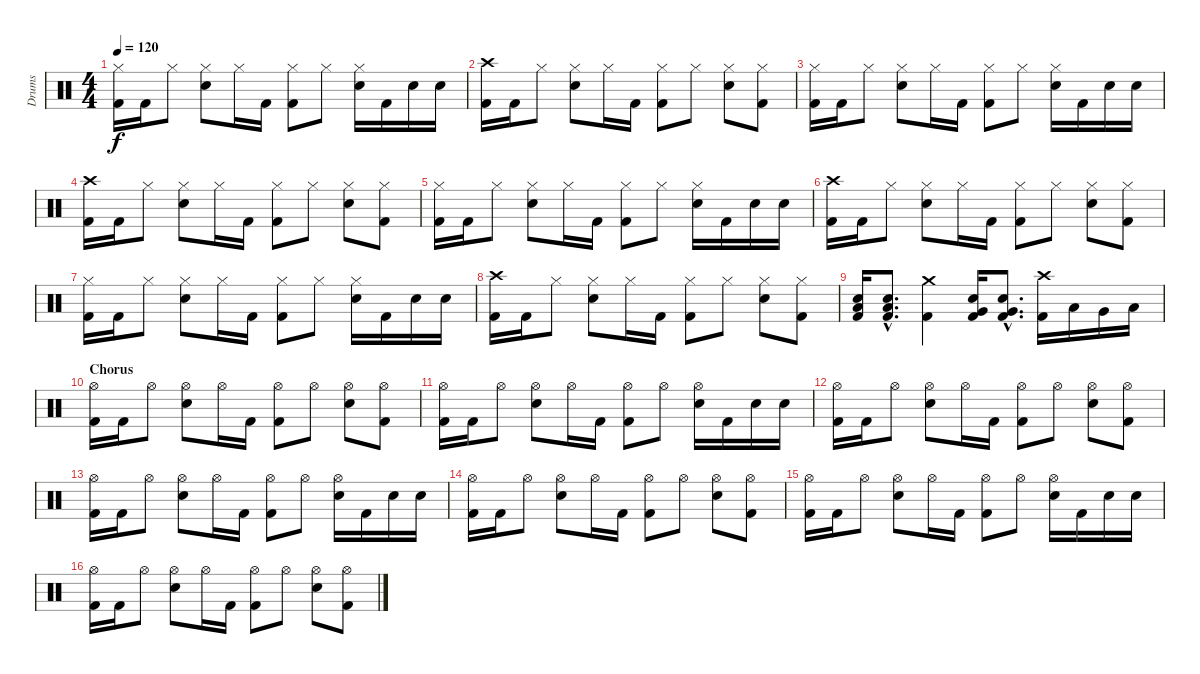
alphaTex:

\track ("Drums" "Drums") {instrument percussion}
\staff {score}
\articulation defaults
\ts (4 4)
\tempo 120
\clef neutral
\ks c
("Hi-Hat (closed)" "Kick (hit) 2").16{dy f} "Kick (hit) 2".16 "Hi-Hat (closed)".8 ("Hi-Hat (closed)" "Electric Snare (hit)").8 "Hi-Hat (closed)".16 "Kick (hit) 2".16 ("Hi-Hat (closed)" "Kick (hit) 2").8 "Hi-Hat (closed)".8 ("Hi-Hat (closed)" "Electric Snare (hit)").16 "Kick (hit) 2".16 "Electric Snare (hit)".16 "Electric Snare (hit)".16 |
("Crash high (hit)" "Kick (hit) 2").16 "Kick (hit) 2".16 "Hi-Hat (closed)".8 ("Hi-Hat (closed)" "Electric Snare (hit)").8 "Hi-Hat (closed)".16 "Kick (hit) 2".16 ("Hi-Hat (closed)" "Kick (hit) 2").8 "Hi-Hat (closed)".8 ("Hi-Hat (closed)" "Electric Snare (hit)").8 ("Hi-Hat (closed)" "Kick (hit) 2").8 |
("Hi-Hat (closed)" "Kick (hit) 2").16 "Kick (hit) 2".16 "Hi-Hat (closed)".8 ("Hi-Hat (closed)" "Electric Snare (hit)").8 "Hi-Hat (closed)".16 "Kick (hit) 2".16 ("Hi-Hat (closed)" "Kick (hit) 2").8 "Hi-Hat (closed)".8 ("Hi-Hat (closed)" "Electric Snare (hit)").16 "Kick (hit) 2".16 "Electric Snare (hit)".16 "Electric Snare (hit)".16 |
("Crash high (hit)" "Kick (hit) 2").16 "Kick (hit) 2".16 "Hi-Hat (closed)".8 ("Hi-Hat (closed)" "Electric Snare (hit)").8 "Hi-Hat (closed)".16 "Kick (hit) 2".16 ("Hi-Hat (closed)" "Kick (hit) 2").8 "Hi-Hat (closed)".8 ("Hi-Hat (closed)" "Electric Snare (hit)").8 ("Hi-Hat (closed)" "Kick (hit) 2").8 |
("Hi-Hat (closed)" "Kick (hit) 2").16 "Kick (hit) 2".16 "Hi-Hat (closed)".8 ("Hi-Hat (closed)" "Electric Snare (hit)").8 "Hi-Hat (closed)".16 "Kick (hit) 2".16 ("Hi-Hat (closed)" "Kick (hit) 2").8 "Hi-Hat (closed)".8 ("Hi-Hat (closed)" "Electric Snare (hit)").16 "Kick (hit) 2".16 "Electric Snare (hit)".16 "Electric Snare (hit)".16 |
("Crash high (hit)" "Kick (hit) 2").16 "Kick (hit) 2".16 "Hi-Hat (closed)".8 ("Hi-Hat (closed)" "Electric Snare (hit)").8 "Hi-Hat (closed)".16 "Kick (hit) 2".16 ("Hi-Hat (closed)" "Kick (hit) 2").8 "Hi-Hat (closed)".8 ("Hi-Hat (closed)" "Electric Snare (hit)").8 ("Hi-Hat (closed)" "Kick (hit) 2").8 |
("Hi-Hat (closed)" "Kick (hit) 2").16 "Kick (hit) 2".16 "Hi-Hat (closed)".8 ("Hi-Hat (closed)" "Electric Snare (hit)").8 "Hi-Hat (closed)".16 "Kick (hit) 2".16 ("Hi-Hat (closed)" "Kick (hit) 2").8 "Hi-Hat (closed)".8 ("Hi-Hat (closed)" "Electric Snare (hit)").16 "Kick (hit) 2".16 "Electric Snare (hit)".16 "Electric Snare (hit)".16 |
("Crash high (hit)" "Kick (hit) 2").16 "Kick (hit) 2".16 "Hi-Hat (closed)".8 ("Hi-Hat (closed)" "Electric Snare (hit)").8 "Hi-Hat (closed)".16 "Kick (hit) 2".16 ("Hi-Hat (closed)" "Kick (hit) 2").8 "Hi-Hat (closed)".8 ("Hi-Hat (closed)" "Electric Snare (hit)").8 ("Hi-Hat (closed)" "Kick (hit) 2").8 |
("Electric Snare (hit)" "Low Floor Tom (hit)" "Kick (hit) 2").16 ("Electric Snare (hit)"{hac} "Low Floor Tom (hit)"{hac} "Kick (hit) 2"{hac}).8{d} ("Crash medium (hit)" "Kick (hit) 2").4 ("Electric Snare (hit)" "Very Low Tom (hit)" "Kick (hit) 2").16 ("Electric Snare (hit)"{hac} "Very Low Tom (hit)"{hac} "Kick (hit) 2"{hac}).8{d} ("Crash high (hit)" "Kick (hit) 2").16 "Low Tom (hit)".16 "Very Low Tom (hit)".16 "Low Floor Tom (hit)".16 |
\section ("" "Chorus")
("Hi-Hat (open)" "Kick (hit) 2").16 "Kick (hit) 2".16 "Hi-Hat (open)".8 ("Hi-Hat (open)" "Electric Snare (hit)").8 "Hi-Hat (open)".16 "Kick (hit) 2".16 ("Hi-Hat (open)" "Kick (hit) 2").8 "Hi-Hat (open)".8 ("Hi-Hat (open)" "Electric Snare (hit)").8 ("Hi-Hat (open)" "Kick (hit) 2").8 |
("Hi-Hat (open)" "Kick (hit) 2").16 "Kick (hit) 2".16 "Hi-Hat (open)".8 ("Hi-Hat (open)" "Electric Snare (hit)").8 "Hi-Hat (open)".16 "Kick (hit) 2".16 ("Hi-Hat (open)" "Kick (hit) 2").8 "Hi-Hat (open)".8 ("Hi-Hat (open)" "Electric Snare (hit)").16 "Kick (hit) 2".16 "Electric Snare (hit)".16 "Electric Snare (hit)".16 |
("Hi-Hat (open)" "Kick (hit) 2").16 "Kick (hit) 2".16 "Hi-Hat (open)".8 ("Hi-Hat (open)" "Electric Snare (hit)").8 "Hi-Hat (open)".16 "Kick (hit) 2".16 ("Hi-Hat (open)" "Kick (hit) 2").8 "Hi-Hat (open)".8 ("Hi-Hat (open)" "Electric Snare (hit)").8 ("Hi-Hat (open)" "Kick (hit) 2").8 |
("Hi-Hat (open)" "Kick (hit) 2").16 "Kick (hit) 2".16 "Hi-Hat (open)".8 ("Hi-Hat (open)" "Electric Snare (hit)").8 "Hi-Hat (open)".16 "Kick (hit) 2".16 ("Hi-Hat (open)" "Kick (hit) 2").8 "Hi-Hat (open)".8 ("Hi-Hat (open)" "Electric Snare (hit)").16 "Kick (hit) 2".16 "Electric Snare (hit)".16 "Electric Snare (hit)".16 |
("Hi-Hat (open)" "Kick (hit) 2").16 "Kick (hit) 2".16 "Hi-Hat (open)".8 ("Hi-Hat (open)" "Electric Snare (hit)").8 "Hi-Hat (open)".16 "Kick (hit) 2".16 ("Hi-Hat (open)" "Kick (hit) 2").8 "Hi-Hat (open)".8 ("Hi-Hat (open)" "Electric Snare (hit)").8 ("Hi-Hat (open)" "Kick (hit) 2").8 |
("Hi-Hat (open)" "Kick (hit) 2").16 "Kick (hit) 2".16 "Hi-Hat (open)".8 ("Hi-Hat (open)" "Electric Snare (hit)").8 "Hi-Hat (open)".16 "Kick (hit) 2".16 ("Hi-Hat (open)" "Kick (hit) 2").8 "Hi-Hat (open)".8 ("Hi-Hat (open)" "Electric Snare (hit)").16 "Kick (hit) 2".16 "Electric Snare (hit)".16 "Electric Snare (hit)".16 |
("Hi-Hat (open)" "Kick (hit) 2").16 "Kick (hit) 2".16 "Hi-Hat (open)".8 ("Hi-Hat (open)" "Electric Snare (hit)").8 "Hi-Hat (open)".16 "Kick (hit) 2".16 ("Hi-Hat (open)" "Kick (hit) 2").8 "Hi-Hat (open)".8 ("Hi-Hat (open)" "Electric Snare (hit)").8 ("Hi-Hat (open)" "Kick (hit) 2").8
